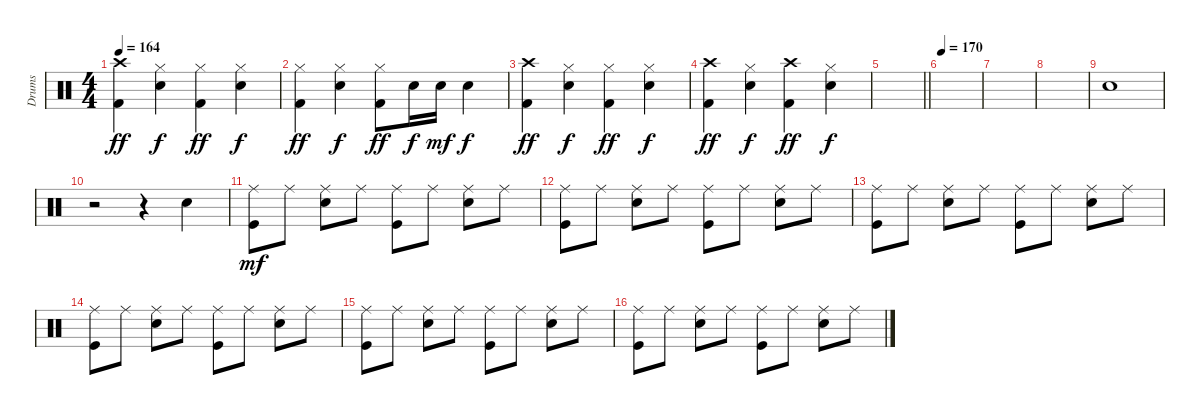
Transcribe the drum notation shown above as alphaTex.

\track ("Drums" "Drums") {instrument percussion}
\staff {score}
\articulation defaults
\ts (4 4)
\tempo 164
\clef neutral
\ks c
("Crash high (hit)" "Kick (hit) 2").4{dy ff} ("Hi-Hat (closed)" "Snare (hit) 2").4{dy f} ("Hi-Hat (closed)" "Kick (hit) 2").4{dy ff} ("Hi-Hat (closed)" "Snare (hit) 2").4{dy f} |
("Hi-Hat (closed)" "Kick (hit) 2").4{dy ff} ("Hi-Hat (closed)" "Snare (hit) 2").4{dy f} ("Hi-Hat (closed)" "Kick (hit) 2").8{dy ff} "Snare (hit) 2".16{dy f} "Snare (hit) 2".16{dy mf} "Snare (hit) 2".4{dy f} |
("Crash high (hit)" "Kick (hit) 2").4{dy ff} ("Hi-Hat (closed)" "Snare (hit) 2").4{dy f} ("Hi-Hat (closed)" "Kick (hit) 2").4{dy ff} ("Hi-Hat (closed)" "Snare (hit) 2").4{dy f} |
("Crash high (hit)" "Kick (hit) 2").4{dy ff} ("Hi-Hat (closed)" "Snare (hit) 2").4{dy f} ("Crash high (hit)" "Kick (hit) 2").4{dy ff} ("Hi-Hat (closed)" "Snare (hit) 2").4{dy f} |
\barLineRight lightlight
|
\tempo 170
|
|
|
"Snare (hit) 2".1 |
r.2 r.4 "Snare (hit) 2".4 |
("Ride (middle)" "Kick (hit)").8{dy mf} "Ride (middle)".8 ("Ride (middle)" "Snare (hit) 2").8 "Ride (middle)".8 ("Ride (middle)" "Kick (hit)").8 "Ride (middle)".8 ("Ride (middle)" "Snare (hit) 2").8 "Ride (middle)".8 |
("Ride (middle)" "Kick (hit)").8 "Ride (middle)".8 ("Ride (middle)" "Snare (hit) 2").8 "Ride (middle)".8 ("Ride (middle)" "Kick (hit)").8 "Ride (middle)".8 ("Ride (middle)" "Snare (hit) 2").8 "Ride (middle)".8 |
("Ride (middle)" "Kick (hit)").8 "Ride (middle)".8 ("Ride (middle)" "Snare (hit) 2").8 "Ride (middle)".8 ("Ride (middle)" "Kick (hit)").8 "Ride (middle)".8 ("Ride (middle)" "Snare (hit) 2").8 "Ride (middle)".8 |
("Ride (middle)" "Kick (hit)").8 "Ride (middle)".8 ("Ride (middle)" "Snare (hit) 2").8 "Ride (middle)".8 ("Ride (middle)" "Kick (hit)").8 "Ride (middle)".8 ("Ride (middle)" "Snare (hit) 2").8 "Ride (middle)".8 |
("Ride (middle)" "Kick (hit)").8 "Ride (middle)".8 ("Ride (middle)" "Snare (hit) 2").8 "Ride (middle)".8 ("Ride (middle)" "Kick (hit)").8 "Ride (middle)".8 ("Ride (middle)" "Snare (hit) 2").8 "Ride (middle)".8 |
("Ride (middle)" "Kick (hit)").8 "Ride (middle)".8 ("Ride (middle)" "Snare (hit) 2").8 "Ride (middle)".8 ("Ride (middle)" "Kick (hit)").8 "Ride (middle)".8 ("Ride (middle)" "Snare (hit) 2").8 "Ride (middle)".8
